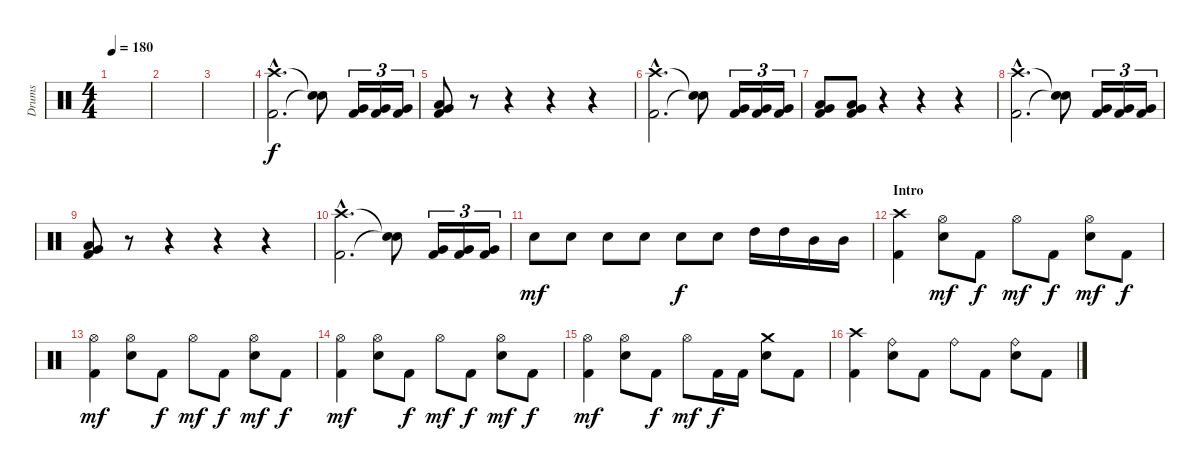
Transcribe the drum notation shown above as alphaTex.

\track ("Drums" "Drums") {instrument percussion}
\staff {score}
\articulation defaults
\ts (4 4)
\tempo 180
\clef neutral
\ks c
|
|
|
("Crash high (hit)"{hac} "Kick (hit) 2"{hac}).2{d} ("Snare (hit)"{t} "Snare (hit)"{t}).8 ("Very Low Tom (hit)" "Kick (hit) 2").16{tu (3 2)} ("Very Low Tom (hit)" "Kick (hit) 2").16{tu (3 2)} ("Very Low Tom (hit)" "Kick (hit) 2").16{tu (3 2)} |
("Low Floor Tom (hit)" "Very Low Tom (hit)" "Kick (hit) 2").8 r.8 r.4 r.4 r.4 |
("Crash high (hit)"{hac} "Kick (hit) 2"{hac}).2{d} ("Snare (hit)"{t} "Snare (hit)"{t}).8 ("Very Low Tom (hit)" "Kick (hit) 2").16{tu (3 2)} ("Very Low Tom (hit)" "Kick (hit) 2").16{tu (3 2)} ("Very Low Tom (hit)" "Kick (hit) 2").16{tu (3 2)} |
("Low Floor Tom (hit)" "Very Low Tom (hit)" "Kick (hit) 2").8 ("Low Floor Tom (hit)" "Very Low Tom (hit)" "Kick (hit) 2").8 r.4 r.4 r.4 |
("Crash high (hit)"{hac} "Kick (hit) 2"{hac}).2{d} ("Snare (hit)"{t} "Snare (hit)"{t}).8 ("Very Low Tom (hit)" "Kick (hit) 2").16{tu (3 2)} ("Very Low Tom (hit)" "Kick (hit) 2").16{tu (3 2)} ("Very Low Tom (hit)" "Kick (hit) 2").16{tu (3 2)} |
("Low Floor Tom (hit)" "Very Low Tom (hit)" "Kick (hit) 2").8 r.8 r.4 r.4 r.4 |
("Crash high (hit)"{hac} "Kick (hit) 2"{hac}).2{d} ("Snare (hit)"{t} "Snare (hit)"{t}).8 ("Very Low Tom (hit)" "Kick (hit) 2").16{tu (3 2)} ("Very Low Tom (hit)" "Kick (hit) 2").16{tu (3 2)} ("Very Low Tom (hit)" "Kick (hit) 2").16{tu (3 2)} |
"Snare (hit) 2".8{dy mf} "Snare (hit) 2".8 "Snare (hit) 2".8 "Snare (hit) 2".8 "Snare (hit) 2".8{dy f} "Snare (hit) 2".8 "High Tom (hit)".16 "High Tom (hit)".16 "Mid Tom (hit)".16 "Mid Tom (hit)".16 |
\section ("" "Intro")
("Crash high (hit)" "Kick (hit) 2").4 ("Hi-Hat (open)" "Snare (hit) 2").8{dy mf} "Kick (hit) 2".8{dy f} "Hi-Hat (open)".8{dy mf} "Kick (hit) 2".8{dy f} ("Hi-Hat (open)" "Snare (hit) 2").8{dy mf} "Kick (hit) 2".8{dy f} |
("Hi-Hat (open)" "Kick (hit) 2").4{dy mf} ("Hi-Hat (open)" "Snare (hit) 2").8 "Kick (hit) 2".8{dy f} "Hi-Hat (open)".8{dy mf} "Kick (hit) 2".8{dy f} ("Hi-Hat (open)" "Snare (hit) 2").8{dy mf} "Kick (hit) 2".8{dy f} |
("Hi-Hat (open)" "Kick (hit) 2").4{dy mf} ("Hi-Hat (open)" "Snare (hit) 2").8 "Kick (hit) 2".8{dy f} "Hi-Hat (open)".8{dy mf} "Kick (hit) 2".8{dy f} ("Hi-Hat (open)" "Snare (hit) 2").8{dy mf} "Kick (hit) 2".8{dy f} |
("Hi-Hat (open)" "Kick (hit) 2").4{dy mf} ("Hi-Hat (open)" "Snare (hit) 2").8 "Kick (hit) 2".8{dy f} "Hi-Hat (open)".8{dy mf} "Kick (hit) 2".16{dy f} "Kick (hit) 2".16 ("Crash medium (hit)" "Snare (hit) 2").8 "Kick (hit) 2".8 |
("Crash high (hit)" "Kick (hit) 2").4 ("Ride (bell)" "Snare (hit) 2").8 "Kick (hit) 2".8 "Ride (bell)".8 "Kick (hit) 2".8 ("Ride (bell)" "Snare (hit) 2").8 "Kick (hit) 2".8
